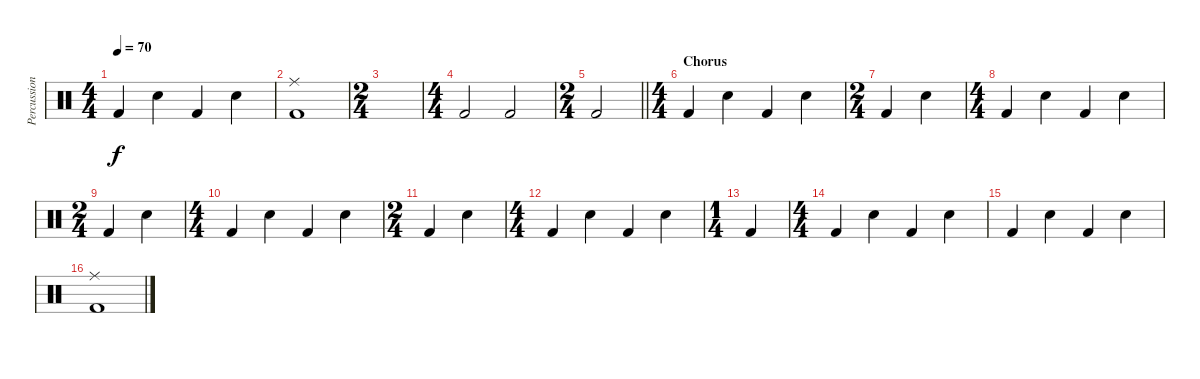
\track ("Percussion" "Percussion") {instrument percussion}
\staff {score}
\articulation defaults
\ts (4 4)
\tempo 70
\clef neutral
\ks c "Kick (hit) 2".4{dy f} "Snare (hit) 2".4 "Kick (hit) 2".4 "Snare (hit) 2".4
|
("Ride (middle)" "Kick (hit) 2").1 |
\ts (2 4)
|
\ts (4 4)
"Kick (hit) 2".2 "Kick (hit) 2".2 |
\ts (2 4)
\barLineRight lightlight "Kick (hit) 2".2
|
\ts (4 4)
\section ("" "Chorus")
"Kick (hit) 2".4 "Snare (hit) 2".4 "Kick (hit) 2".4 "Snare (hit) 2".4 |
\ts (2 4)
"Kick (hit) 2".4 "Snare (hit) 2".4 |
\ts (4 4)
"Kick (hit) 2".4 "Snare (hit) 2".4 "Kick (hit) 2".4 "Snare (hit) 2".4 |
\ts (2 4)
"Kick (hit) 2".4 "Snare (hit) 2".4 |
\ts (4 4)
"Kick (hit) 2".4 "Snare (hit) 2".4 "Kick (hit) 2".4 "Snare (hit) 2".4 |
\ts (2 4)
"Kick (hit) 2".4 "Snare (hit) 2".4 |
\ts (4 4)
"Kick (hit) 2".4 "Snare (hit) 2".4 "Kick (hit) 2".4 "Snare (hit) 2".4 |
\ts (1 4)
"Kick (hit) 2".4 |
\ts (4 4)
"Kick (hit) 2".4 "Snare (hit) 2".4 "Kick (hit) 2".4 "Snare (hit) 2".4 |
"Kick (hit) 2".4 "Snare (hit) 2".4 "Kick (hit) 2".4 "Snare (hit) 2".4 |
("Ride (middle)" "Kick (hit) 2").1
